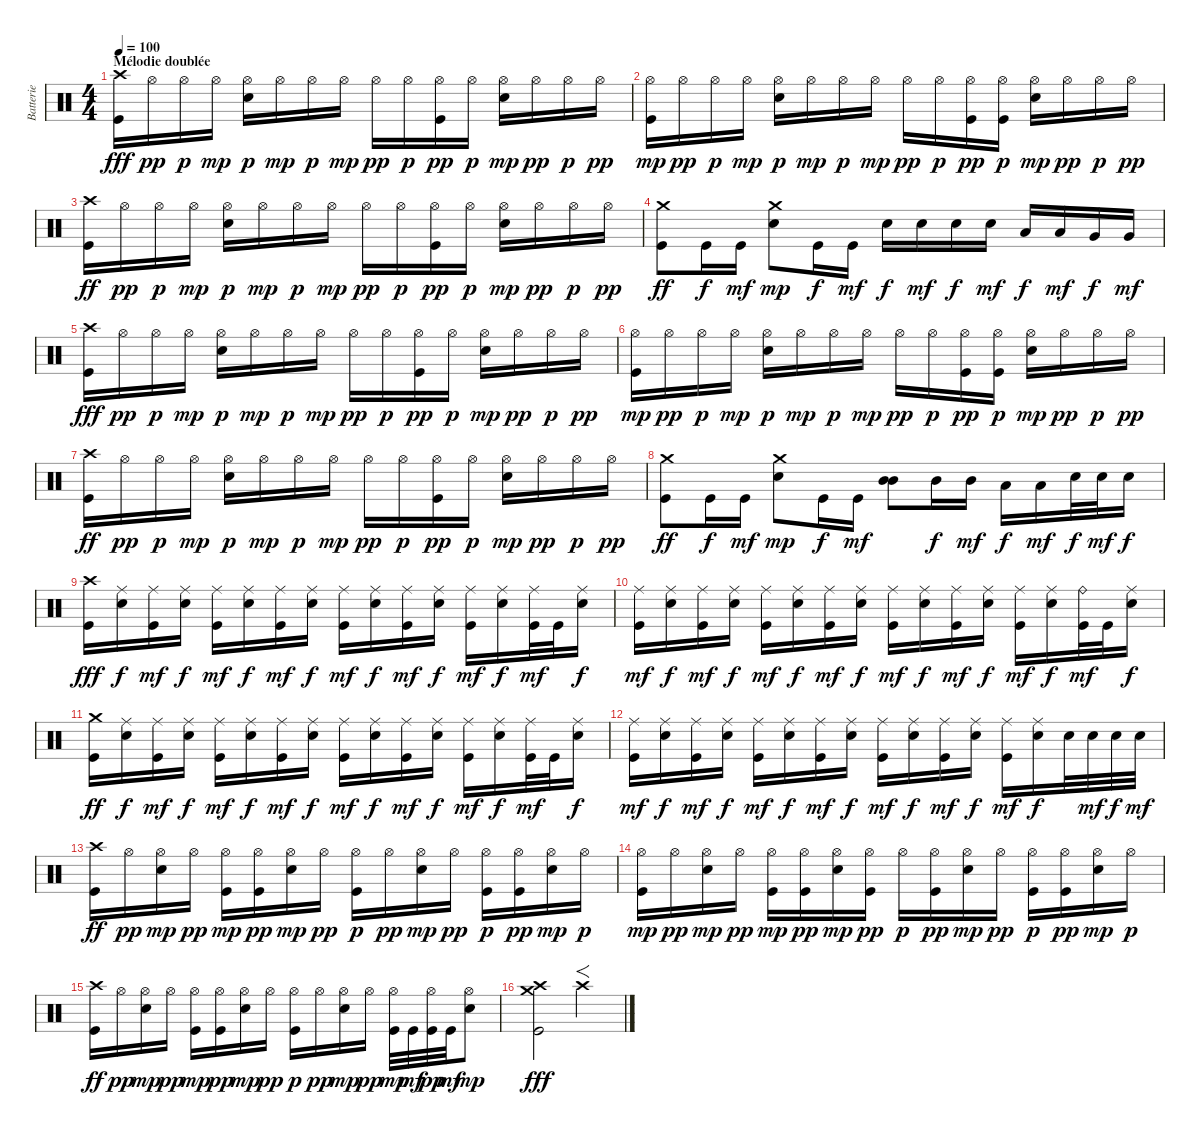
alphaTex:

\track ("Batterie" "Batterie") {instrument percussion}
\staff {score}
\articulation defaults
\ts (4 4)
\section ("" "Mélodie doublée")
\tempo 100
\clef neutral
\ks c
("Crash high (hit)" "Kick (hit)").16{dy fff} "Hi-Hat (open)".16{dy pp} "Hi-Hat (open)".16{dy p} "Hi-Hat (open)".16{dy mp} ("Hi-Hat (open)" "Snare (hit) 2").16{dy p} "Hi-Hat (open)".16{dy mp} "Hi-Hat (open)".16{dy p} "Hi-Hat (open)".16{dy mp} "Hi-Hat (open)".16{dy pp} "Hi-Hat (open)".16{dy p} ("Hi-Hat (open)" "Kick (hit)").16{dy pp} "Hi-Hat (open)".16{dy p} ("Hi-Hat (open)" "Snare (hit) 2").16{dy mp} "Hi-Hat (open)".16{dy pp} "Hi-Hat (open)".16{dy p} "Hi-Hat (open)".16{dy pp} |
("Hi-Hat (open)" "Kick (hit)").16{dy mp} "Hi-Hat (open)".16{dy pp} "Hi-Hat (open)".16{dy p} "Hi-Hat (open)".16{dy mp} ("Hi-Hat (open)" "Snare (hit) 2").16{dy p} "Hi-Hat (open)".16{dy mp} "Hi-Hat (open)".16{dy p} "Hi-Hat (open)".16{dy mp} "Hi-Hat (open)".16{dy pp} "Hi-Hat (open)".16{dy p} ("Hi-Hat (open)" "Kick (hit)").16{dy pp} ("Hi-Hat (open)" "Kick (hit)").16{dy p} ("Hi-Hat (open)" "Snare (hit) 2").16{dy mp} "Hi-Hat (open)".16{dy pp} "Hi-Hat (open)".16{dy p} "Hi-Hat (open)".16{dy pp} |
("Crash high (hit)" "Kick (hit)").16{dy ff} "Hi-Hat (open)".16{dy pp} "Hi-Hat (open)".16{dy p} "Hi-Hat (open)".16{dy mp} ("Hi-Hat (open)" "Snare (hit) 2").16{dy p} "Hi-Hat (open)".16{dy mp} "Hi-Hat (open)".16{dy p} "Hi-Hat (open)".16{dy mp} "Hi-Hat (open)".16{dy pp} "Hi-Hat (open)".16{dy p} ("Hi-Hat (open)" "Kick (hit)").16{dy pp} "Hi-Hat (open)".16{dy p} ("Hi-Hat (open)" "Snare (hit) 2").16{dy mp} "Hi-Hat (open)".16{dy pp} "Hi-Hat (open)".16{dy p} "Hi-Hat (open)".16{dy pp} |
("Crash medium (hit)" "Kick (hit)").8{dy ff} "Kick (hit)".16{dy f} "Kick (hit)".16{dy mf} ("Crash medium (hit)" "Snare (hit) 2").8{dy mp} "Kick (hit)".16{dy f} "Kick (hit)".16{dy mf} "Snare (hit) 2".16{dy f} "Snare (hit) 2".16{dy mf} "Snare (hit) 2".16{dy f} "Snare (hit) 2".16{dy mf} "Low Tom (hit)".16{dy f} "Low Tom (hit)".16{dy mf} "Very Low Tom (hit)".16{dy f} "Very Low Tom (hit)".16{dy mf} |
("Crash high (hit)" "Kick (hit)").16{dy fff} "Hi-Hat (open)".16{dy pp} "Hi-Hat (open)".16{dy p} "Hi-Hat (open)".16{dy mp} ("Hi-Hat (open)" "Snare (hit) 2").16{dy p} "Hi-Hat (open)".16{dy mp} "Hi-Hat (open)".16{dy p} "Hi-Hat (open)".16{dy mp} "Hi-Hat (open)".16{dy pp} "Hi-Hat (open)".16{dy p} ("Hi-Hat (open)" "Kick (hit)").16{dy pp} "Hi-Hat (open)".16{dy p} ("Hi-Hat (open)" "Snare (hit) 2").16{dy mp} "Hi-Hat (open)".16{dy pp} "Hi-Hat (open)".16{dy p} "Hi-Hat (open)".16{dy pp} |
("Hi-Hat (open)" "Kick (hit)").16{dy mp} "Hi-Hat (open)".16{dy pp} "Hi-Hat (open)".16{dy p} "Hi-Hat (open)".16{dy mp} ("Hi-Hat (open)" "Snare (hit) 2").16{dy p} "Hi-Hat (open)".16{dy mp} "Hi-Hat (open)".16{dy p} "Hi-Hat (open)".16{dy mp} "Hi-Hat (open)".16{dy pp} "Hi-Hat (open)".16{dy p} ("Hi-Hat (open)" "Kick (hit)").16{dy pp} ("Hi-Hat (open)" "Kick (hit)").16{dy p} ("Hi-Hat (open)" "Snare (hit) 2").16{dy mp} "Hi-Hat (open)".16{dy pp} "Hi-Hat (open)".16{dy p} "Hi-Hat (open)".16{dy pp} |
("Crash high (hit)" "Kick (hit)").16{dy ff} "Hi-Hat (open)".16{dy pp} "Hi-Hat (open)".16{dy p} "Hi-Hat (open)".16{dy mp} ("Hi-Hat (open)" "Snare (hit) 2").16{dy p} "Hi-Hat (open)".16{dy mp} "Hi-Hat (open)".16{dy p} "Hi-Hat (open)".16{dy mp} "Hi-Hat (open)".16{dy pp} "Hi-Hat (open)".16{dy p} ("Hi-Hat (open)" "Kick (hit)").16{dy pp} "Hi-Hat (open)".16{dy p} ("Hi-Hat (open)" "Snare (hit) 2").16{dy mp} "Hi-Hat (open)".16{dy pp} "Hi-Hat (open)".16{dy p} "Hi-Hat (open)".16{dy pp} |
("Crash medium (hit)" "Kick (hit)").8{dy ff} "Kick (hit)".16{dy f} "Kick (hit)".16{dy mf} ("Crash medium (hit)" "Snare (hit) 2").8{dy mp} "Kick (hit)".16{dy f} "Kick (hit)".16{dy mf} ("Mid Tom (hit)" "Mid Tom (hit)").8{bd 120} "Mid Tom (hit)".16{dy f} "Mid Tom (hit)".16{dy mf} "Low Tom (hit)".16{dy f} "Low Tom (hit)".16{dy mf} "Snare (hit) 2".32{dy f} "Snare (hit) 2".32{dy mf} "Snare (hit) 2".16{dy f} |
("Crash high (hit)" "Kick (hit)").16{dy fff} ("Ride (middle)" "Snare (hit) 2").16{dy f} ("Ride (middle)" "Kick (hit)").16{dy mf} ("Ride (middle)" "Snare (hit) 2").16{dy f} ("Ride (middle)" "Kick (hit)").16{dy mf} ("Ride (middle)" "Snare (hit) 2").16{dy f} ("Ride (middle)" "Kick (hit)").16{dy mf} ("Ride (middle)" "Snare (hit) 2").16{dy f} ("Ride (middle)" "Kick (hit)").16{dy mf} ("Ride (middle)" "Snare (hit) 2").16{dy f} ("Ride (middle)" "Kick (hit)").16{dy mf} ("Ride (middle)" "Snare (hit) 2").16{dy f} ("Ride (middle)" "Kick (hit)").16{dy mf} ("Ride (middle)" "Snare (hit) 2").16{dy f} ("Ride (middle)" "Kick (hit)").32{dy mf} "Kick (hit)".32 ("Ride (middle)" "Snare (hit) 2").16{dy f} |
("Ride (middle)" "Kick (hit)").16{dy mf} ("Ride (middle)" "Snare (hit) 2").16{dy f} ("Ride (middle)" "Kick (hit)").16{dy mf} ("Ride (middle)" "Snare (hit) 2").16{dy f} ("Ride (middle)" "Kick (hit)").16{dy mf} ("Ride (middle)" "Snare (hit) 2").16{dy f} ("Ride (middle)" "Kick (hit)").16{dy mf} ("Ride (middle)" "Snare (hit) 2").16{dy f} ("Ride (middle)" "Kick (hit)").16{dy mf} ("Ride (middle)" "Snare (hit) 2").16{dy f} ("Ride (middle)" "Kick (hit)").16{dy mf} ("Ride (middle)" "Snare (hit) 2").16{dy f} ("Ride (middle)" "Kick (hit)").16{dy mf} ("Ride (middle)" "Snare (hit) 2").16{dy f} ("Ride (bell)" "Kick (hit)").32{dy mf} "Kick (hit)".32 ("Ride (middle)" "Snare (hit) 2").16{dy f} |
("Crash medium (hit)" "Kick (hit)").16{dy ff} ("Ride (middle)" "Snare (hit) 2").16{dy f} ("Ride (middle)" "Kick (hit)").16{dy mf} ("Ride (middle)" "Snare (hit) 2").16{dy f} ("Ride (middle)" "Kick (hit)").16{dy mf} ("Ride (middle)" "Snare (hit) 2").16{dy f} ("Ride (middle)" "Kick (hit)").16{dy mf} ("Ride (middle)" "Snare (hit) 2").16{dy f} ("Ride (middle)" "Kick (hit)").16{dy mf} ("Ride (middle)" "Snare (hit) 2").16{dy f} ("Ride (middle)" "Kick (hit)").16{dy mf} ("Ride (middle)" "Snare (hit) 2").16{dy f} ("Ride (middle)" "Kick (hit)").16{dy mf} ("Ride (middle)" "Snare (hit) 2").16{dy f} ("Ride (middle)" "Kick (hit)").32{dy mf} "Kick (hit)".32 ("Ride (middle)" "Snare (hit) 2").16{dy f} |
("Ride (middle)" "Kick (hit)").16{dy mf} ("Ride (middle)" "Snare (hit) 2").16{dy f} ("Ride (middle)" "Kick (hit)").16{dy mf} ("Ride (middle)" "Snare (hit) 2").16{dy f} ("Ride (middle)" "Kick (hit)").16{dy mf} ("Ride (middle)" "Snare (hit) 2").16{dy f} ("Ride (middle)" "Kick (hit)").16{dy mf} ("Ride (middle)" "Snare (hit) 2").16{dy f} ("Ride (middle)" "Kick (hit)").16{dy mf} ("Ride (middle)" "Snare (hit) 2").16{dy f} ("Ride (middle)" "Kick (hit)").16{dy mf} ("Ride (middle)" "Snare (hit) 2").16{dy f} ("Ride (middle)" "Kick (hit)").16{dy mf} ("Ride (middle)" "Snare (hit) 2").16{dy f} "Snare (hit) 2".32 "Snare (hit) 2".32{dy mf} "Snare (hit) 2".32{dy f} "Snare (hit) 2".32{dy mf} |
("Crash high (hit)" "Kick (hit)").16{dy ff} "Hi-Hat (open)".16{dy pp} ("Hi-Hat (open)" "Snare (hit) 2").16{dy mp} "Hi-Hat (open)".16{dy pp} ("Hi-Hat (open)" "Kick (hit)").16{dy mp} ("Hi-Hat (open)" "Kick (hit)").16{dy pp} ("Hi-Hat (open)" "Snare (hit) 2").16{dy mp} "Hi-Hat (open)".16{dy pp} ("Hi-Hat (open)" "Kick (hit)").16{dy p} "Hi-Hat (open)".16{dy pp} ("Hi-Hat (open)" "Snare (hit) 2").16{dy mp} "Hi-Hat (open)".16{dy pp} ("Hi-Hat (open)" "Kick (hit)").16{dy p} ("Hi-Hat (open)" "Kick (hit)").16{dy pp} ("Hi-Hat (open)" "Snare (hit) 2").16{dy mp} "Hi-Hat (open)".16{dy p} |
("Hi-Hat (open)" "Kick (hit)").16{dy mp} "Hi-Hat (open)".16{dy pp} ("Hi-Hat (open)" "Snare (hit) 2").16{dy mp} "Hi-Hat (open)".16{dy pp} ("Hi-Hat (open)" "Kick (hit)").16{dy mp} ("Hi-Hat (open)" "Kick (hit)").16{dy pp} ("Hi-Hat (open)" "Snare (hit) 2").16{dy mp} ("Hi-Hat (open)" "Kick (hit)").16{dy pp} "Hi-Hat (open)".16{dy p} ("Hi-Hat (open)" "Kick (hit)").16{dy pp} ("Hi-Hat (open)" "Snare (hit) 2").16{dy mp} "Hi-Hat (open)".16{dy pp} ("Hi-Hat (open)" "Kick (hit)").16{dy p} ("Hi-Hat (open)" "Kick (hit)").16{dy pp} ("Hi-Hat (open)" "Snare (hit) 2").16{dy mp} "Hi-Hat (open)".16{dy p} |
("Crash high (hit)" "Kick (hit)").16{dy ff} "Hi-Hat (open)".16{dy pp} ("Hi-Hat (open)" "Snare (hit) 2").16{dy mp} "Hi-Hat (open)".16{dy pp} ("Hi-Hat (open)" "Kick (hit)").16{dy mp} ("Hi-Hat (open)" "Kick (hit)").16{dy pp} ("Hi-Hat (open)" "Snare (hit) 2").16{dy mp} "Hi-Hat (open)".16{dy pp} ("Hi-Hat (open)" "Kick (hit)").16{dy p} "Hi-Hat (open)".16{dy pp} ("Hi-Hat (open)" "Snare (hit) 2").16{dy mp} "Hi-Hat (open)".16{dy pp} ("Hi-Hat (open)" "Kick (hit)").32{dy mp} "Kick (hit)".32{dy mf} ("Hi-Hat (open)" "Kick (hit)").32{dy pp} "Kick (hit)".32{dy mf} ("Hi-Hat (open)" "Snare (hit) 2").8{dy mp} |
("Crash medium (hit)" "Crash high (hit)" "Kick (hit)").2{dy fff} "Crash high (hit)".2{f}
